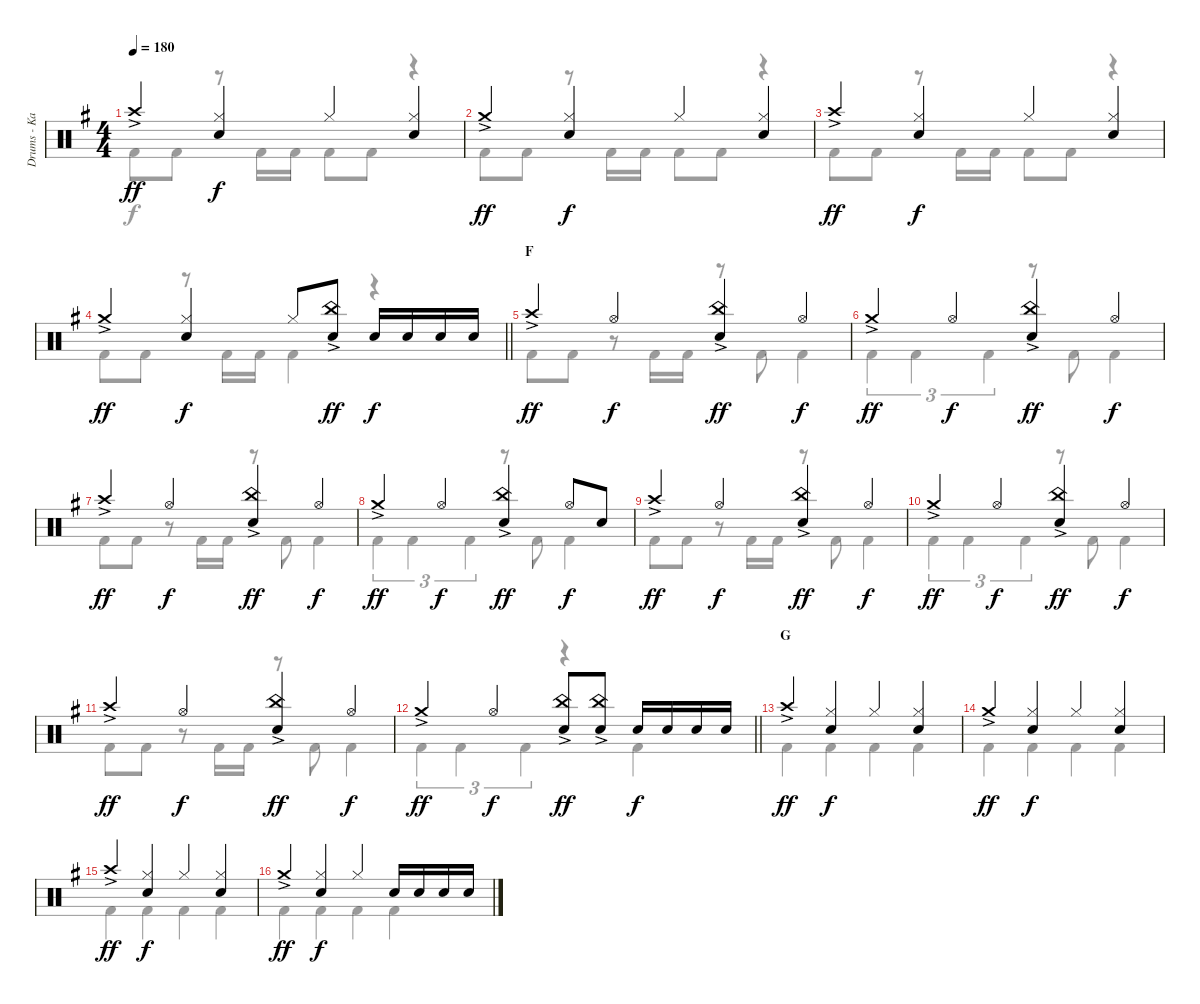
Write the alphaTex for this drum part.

\track ("Drums - Kai" "Drums - Ka") {instrument percussion}
\staff {score}
\articulation defaults
\voice
\ts (4 4)
\tempo 180
\clef neutral
\ks g "Crash high (hit)"{ac}.4{dy ff}
("Hi-Hat (closed)" "Snare (hit) 2").4{dy f} "Hi-Hat (closed)".4 ("Hi-Hat (closed)" "Snare (hit) 2").4 |
"Crash medium (hit)"{ac}.4{dy ff} ("Hi-Hat (closed)" "Snare (hit) 2").4{dy f} "Hi-Hat (closed)".4 ("Hi-Hat (closed)" "Snare (hit) 2").4 |
"Crash high (hit)"{ac}.4{dy ff} ("Hi-Hat (closed)" "Snare (hit) 2").4{dy f} "Hi-Hat (closed)".4 ("Hi-Hat (closed)" "Snare (hit) 2").4 |
\barLineRight lightlight "Crash medium (hit)"{ac}.4{dy ff}
("Hi-Hat (closed)" "Snare (hit) 2").4{dy f} "Hi-Hat (closed)".8 ("China (hit)"{ac} "Snare (hit) 2").8{dy ff} "Snare (hit) 2".16{dy f} "Snare (hit) 2".16 "Snare (hit) 2".16 "Snare (hit) 2".16 |
\section ("" "F")
"Crash high (hit)"{ac}.4{dy ff} "Hi-Hat (open)".4{dy f} ("China (hit)"{ac} "Snare (hit) 2").4{dy ff} "Hi-Hat (open)".4{dy f} |
"Crash medium (hit)"{ac}.4{dy ff} "Hi-Hat (open)".4{dy f} ("China (hit)"{ac} "Snare (hit) 2").4{dy ff} "Hi-Hat (open)".4{dy f} |
"Crash high (hit)"{ac}.4{dy ff} "Hi-Hat (open)".4{dy f} ("China (hit)"{ac} "Snare (hit) 2").4{dy ff} "Hi-Hat (open)".4{dy f} |
"Crash medium (hit)"{ac}.4{dy ff} "Hi-Hat (open)".4{dy f} ("China (hit)"{ac} "Snare (hit) 2").4{dy ff} "Hi-Hat (open)".8{dy f} "Snare (hit) 2".8 |
"Crash high (hit)"{ac}.4{dy ff} "Hi-Hat (open)".4{dy f} ("China (hit)"{ac} "Snare (hit) 2").4{dy ff} "Hi-Hat (open)".4{dy f} |
"Crash medium (hit)"{ac}.4{dy ff} "Hi-Hat (open)".4{dy f} ("China (hit)"{ac} "Snare (hit) 2").4{dy ff} "Hi-Hat (open)".4{dy f} |
"Crash high (hit)"{ac}.4{dy ff} "Hi-Hat (open)".4{dy f} ("China (hit)"{ac} "Snare (hit) 2").4{dy ff} "Hi-Hat (open)".4{dy f} |
\barLineRight lightlight "Crash medium (hit)"{ac}.4{dy ff} "Hi-Hat (open)".4{dy f}
("China (hit)"{ac} "Snare (hit) 2").8{dy ff} ("China (hit)"{ac} "Snare (hit) 2").8 "Snare (hit) 2".16{dy f} "Snare (hit) 2".16 "Snare (hit) 2".16 "Snare (hit) 2".16 |
\section ("" "G")
"Crash high (hit)"{ac}.4{dy ff} ("Hi-Hat (closed)" "Snare (hit) 2").4{dy f} "Hi-Hat (closed)".4 ("Hi-Hat (closed)" "Snare (hit) 2").4 |
"Crash medium (hit)"{ac}.4{dy ff} ("Hi-Hat (closed)" "Snare (hit) 2").4{dy f} "Hi-Hat (closed)".4 ("Hi-Hat (closed)" "Snare (hit) 2").4 |
"Crash high (hit)"{ac}.4{dy ff} ("Hi-Hat (closed)" "Snare (hit) 2").4{dy f} "Hi-Hat (closed)".4 ("Hi-Hat (closed)" "Snare (hit) 2").4 |
"Crash medium (hit)"{ac}.4{dy ff} ("Hi-Hat (closed)" "Snare (hit) 2").4{dy f} "Hi-Hat (closed)".4 "Snare (hit) 2".16 "Snare (hit) 2".16 "Snare (hit) 2".16 "Snare (hit) 2".16
\voice
\clef neutral
\ottava regular
\simile none
\ks g "Kick (hit) 2".8{dy f} "Kick (hit) 2".8
r.8 "Kick (hit) 2".16 "Kick (hit) 2".16 "Kick (hit) 2".8 "Kick (hit) 2".8 r.4 |
"Kick (hit) 2".8 "Kick (hit) 2".8 r.8 "Kick (hit) 2".16 "Kick (hit) 2".16 "Kick (hit) 2".8 "Kick (hit) 2".8 r.4 |
"Kick (hit) 2".8 "Kick (hit) 2".8 r.8 "Kick (hit) 2".16 "Kick (hit) 2".16 "Kick (hit) 2".8 "Kick (hit) 2".8 r.4 |
\barLineRight lightlight "Kick (hit) 2".8 "Kick (hit) 2".8
r.8 "Kick (hit) 2".16 "Kick (hit) 2".16 "Kick (hit) 2".4 r.4 |
"Kick (hit) 2".8 "Kick (hit) 2".8 r.8 "Kick (hit) 2".16 "Kick (hit) 2".16 r.8 "Kick (hit) 2".8 "Kick (hit) 2".4 |
"Kick (hit) 2".4{tu (3 2)} "Kick (hit) 2".4{tu (3 2)} "Kick (hit) 2".4{tu (3 2)} r.8 "Kick (hit) 2".8 "Kick (hit) 2".4 |
"Kick (hit) 2".8 "Kick (hit) 2".8 r.8 "Kick (hit) 2".16 "Kick (hit) 2".16 r.8 "Kick (hit) 2".8 "Kick (hit) 2".4 |
"Kick (hit) 2".4{tu (3 2)} "Kick (hit) 2".4{tu (3 2)} "Kick (hit) 2".4{tu (3 2)} r.8 "Kick (hit) 2".8 "Kick (hit) 2".4 |
"Kick (hit) 2".8 "Kick (hit) 2".8 r.8 "Kick (hit) 2".16 "Kick (hit) 2".16 r.8 "Kick (hit) 2".8 "Kick (hit) 2".4 |
"Kick (hit) 2".4{tu (3 2)} "Kick (hit) 2".4{tu (3 2)} "Kick (hit) 2".4{tu (3 2)} r.8 "Kick (hit) 2".8 "Kick (hit) 2".4 |
"Kick (hit) 2".8 "Kick (hit) 2".8 r.8 "Kick (hit) 2".16 "Kick (hit) 2".16 r.8 "Kick (hit) 2".8 "Kick (hit) 2".4 |
\barLineRight lightlight "Kick (hit) 2".4{tu (3 2)} "Kick (hit) 2".4{tu (3 2)} "Kick (hit) 2".4{tu (3 2)}
r.4 "Kick (hit) 2".4 |
"Kick (hit) 2".4 "Kick (hit) 2".4 "Kick (hit) 2".4 "Kick (hit) 2".4 |
"Kick (hit) 2".4 "Kick (hit) 2".4 "Kick (hit) 2".4 "Kick (hit) 2".4 |
"Kick (hit) 2".4 "Kick (hit) 2".4 "Kick (hit) 2".4 "Kick (hit) 2".4 |
"Kick (hit) 2".4 "Kick (hit) 2".4 "Kick (hit) 2".4 "Kick (hit) 2".4
